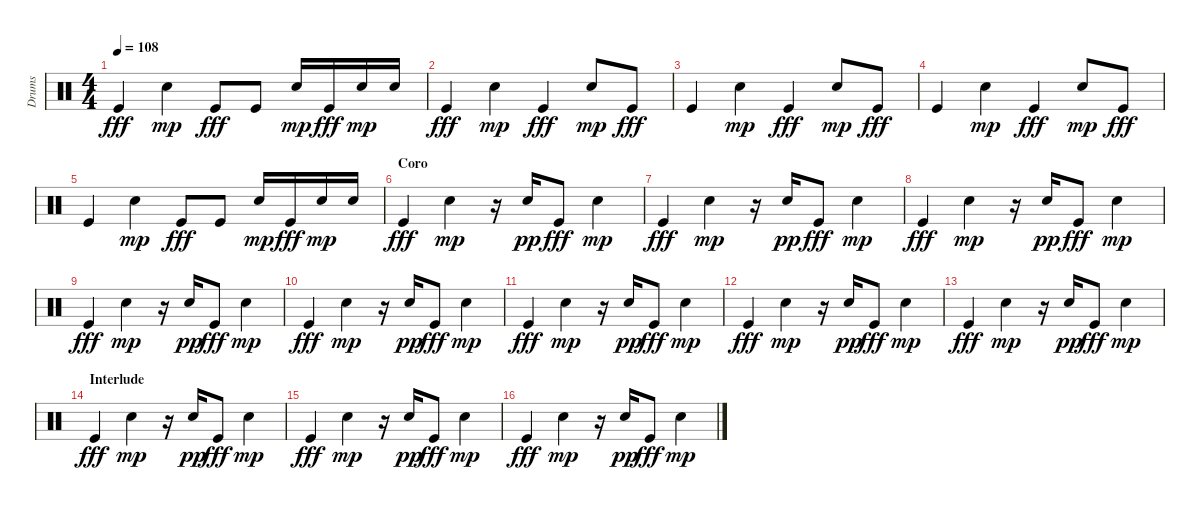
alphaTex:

\track ("Drums" "Drums") {instrument percussion}
\staff {score}
\articulation defaults
\ts (4 4)
\tempo 108
\clef neutral
\ks c "Kick (hit)".4{dy fff} "Snare (hit) 2".4{dy mp} "Kick (hit)".8{dy fff} "Kick (hit)".8 "Snare (hit) 2".16{dy mp} "Kick (hit)".16{dy fff} "Snare (hit) 2".16{dy mp} "Snare (hit) 2".16
|
"Kick (hit)".4{dy fff} "Snare (hit) 2".4{dy mp} "Kick (hit)".4{dy fff} "Snare (hit) 2".8{dy mp} "Kick (hit)".8{dy fff} |
"Kick (hit)".4 "Snare (hit) 2".4{dy mp} "Kick (hit)".4{dy fff} "Snare (hit) 2".8{dy mp} "Kick (hit)".8{dy fff} |
"Kick (hit)".4 "Snare (hit) 2".4{dy mp} "Kick (hit)".4{dy fff} "Snare (hit) 2".8{dy mp} "Kick (hit)".8{dy fff} |
"Kick (hit)".4 "Snare (hit) 2".4{dy mp} "Kick (hit)".8{dy fff} "Kick (hit)".8 "Snare (hit) 2".16{dy mp} "Kick (hit)".16{dy fff} "Snare (hit) 2".16{dy mp} "Snare (hit) 2".16 |
\section ("" "Coro")
"Kick (hit)".4{dy fff} "Snare (hit) 2".4{dy mp} r.16 "Snare (hit) 2".16{dy pp} "Kick (hit)".8{dy fff} "Snare (hit) 2".4{dy mp} |
"Kick (hit)".4{dy fff} "Snare (hit) 2".4{dy mp} r.16 "Snare (hit) 2".16{dy pp} "Kick (hit)".8{dy fff} "Snare (hit) 2".4{dy mp} |
"Kick (hit)".4{dy fff} "Snare (hit) 2".4{dy mp} r.16 "Snare (hit) 2".16{dy pp} "Kick (hit)".8{dy fff} "Snare (hit) 2".4{dy mp} |
"Kick (hit)".4{dy fff} "Snare (hit) 2".4{dy mp} r.16 "Snare (hit) 2".16{dy pp} "Kick (hit)".8{dy fff} "Snare (hit) 2".4{dy mp} |
"Kick (hit)".4{dy fff} "Snare (hit) 2".4{dy mp} r.16 "Snare (hit) 2".16{dy pp} "Kick (hit)".8{dy fff} "Snare (hit) 2".4{dy mp} |
"Kick (hit)".4{dy fff} "Snare (hit) 2".4{dy mp} r.16 "Snare (hit) 2".16{dy pp} "Kick (hit)".8{dy fff} "Snare (hit) 2".4{dy mp} |
"Kick (hit)".4{dy fff} "Snare (hit) 2".4{dy mp} r.16 "Snare (hit) 2".16{dy pp} "Kick (hit)".8{dy fff} "Snare (hit) 2".4{dy mp} |
"Kick (hit)".4{dy fff} "Snare (hit) 2".4{dy mp} r.16 "Snare (hit) 2".16{dy pp} "Kick (hit)".8{dy fff} "Snare (hit) 2".4{dy mp} |
\section ("" "Interlude")
"Kick (hit)".4{dy fff} "Snare (hit) 2".4{dy mp} r.16 "Snare (hit) 2".16{dy pp} "Kick (hit)".8{dy fff} "Snare (hit) 2".4{dy mp} |
"Kick (hit)".4{dy fff} "Snare (hit) 2".4{dy mp} r.16 "Snare (hit) 2".16{dy pp} "Kick (hit)".8{dy fff} "Snare (hit) 2".4{dy mp} |
"Kick (hit)".4{dy fff} "Snare (hit) 2".4{dy mp} r.16 "Snare (hit) 2".16{dy pp} "Kick (hit)".8{dy fff} "Snare (hit) 2".4{dy mp}
